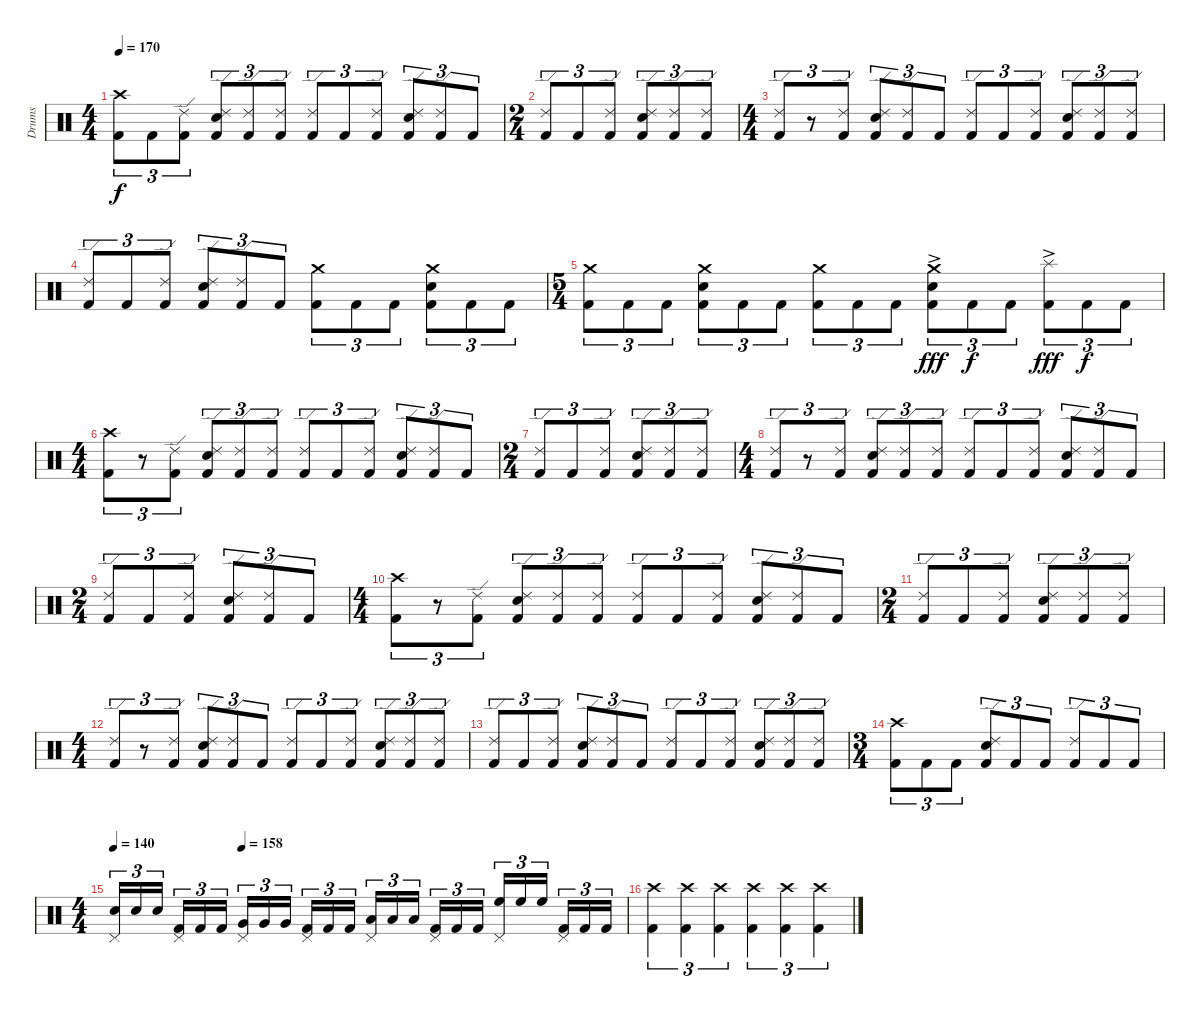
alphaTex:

\track ("Drums" "Drums") {instrument percussion}
\staff {score}
\articulation defaults
\ts (4 4)
\tempo 170
\clef neutral
\ks c
("Crash high (hit)" "Kick (hit) 2").8{tu (3 2) dy f} "Kick (hit) 2".8{tu (3 2)} ("Ride (edge) 2" "Kick (hit) 2").8{tu (3 2)} ("Ride (edge) 2" "Snare (hit) 2" "Kick (hit) 2").8{tu (3 2)} ("Ride (edge) 2" "Kick (hit) 2").8{tu (3 2)} ("Ride (edge) 2" "Kick (hit) 2").8{tu (3 2)} ("Ride (edge) 2" "Kick (hit) 2").8{tu (3 2)} "Kick (hit) 2".8{tu (3 2)} ("Ride (edge) 2" "Kick (hit) 2").8{tu (3 2)} ("Ride (edge) 2" "Snare (hit) 2" "Kick (hit) 2").8{tu (3 2)} ("Ride (edge) 2" "Kick (hit) 2").8{tu (3 2)} "Kick (hit) 2".8{tu (3 2)} |
\ts (2 4)
("Ride (edge) 2" "Kick (hit) 2").8{tu (3 2)} "Kick (hit) 2".8{tu (3 2)} ("Ride (edge) 2" "Kick (hit) 2").8{tu (3 2)} ("Ride (edge) 2" "Snare (hit) 2" "Kick (hit) 2").8{tu (3 2)} ("Ride (edge) 2" "Kick (hit) 2").8{tu (3 2)} ("Ride (edge) 2" "Kick (hit) 2").8{tu (3 2)} |
\ts (4 4)
("Ride (edge) 2" "Kick (hit) 2").8{tu (3 2)} r.8{tu (3 2)} ("Ride (edge) 2" "Kick (hit) 2").8{tu (3 2)} ("Ride (edge) 2" "Snare (hit) 2" "Kick (hit) 2").8{tu (3 2)} ("Ride (edge) 2" "Kick (hit) 2").8{tu (3 2)} "Kick (hit) 2".8{tu (3 2)} ("Ride (edge) 2" "Kick (hit) 2").8{tu (3 2)} "Kick (hit) 2".8{tu (3 2)} ("Ride (edge) 2" "Kick (hit) 2").8{tu (3 2)} ("Ride (edge) 2" "Snare (hit) 2" "Kick (hit) 2").8{tu (3 2)} ("Ride (edge) 2" "Kick (hit) 2").8{tu (3 2)} ("Ride (edge) 2" "Kick (hit) 2").8{tu (3 2)} |
("Ride (edge) 2" "Kick (hit) 2").8{tu (3 2)} "Kick (hit) 2".8{tu (3 2)} ("Ride (edge) 2" "Kick (hit) 2").8{tu (3 2)} ("Ride (edge) 2" "Snare (hit) 2" "Kick (hit) 2").8{tu (3 2)} ("Ride (edge) 2" "Kick (hit) 2").8{tu (3 2)} "Kick (hit) 2".8{tu (3 2)} ("Crash medium (hit)" "Kick (hit) 2").8{tu (3 2)} "Kick (hit) 2".8{tu (3 2)} "Kick (hit) 2".8{tu (3 2)} ("Crash medium (hit)" "Snare (hit) 2" "Kick (hit) 2").8{tu (3 2)} "Kick (hit) 2".8{tu (3 2)} "Kick (hit) 2".8{tu (3 2)} |
\ts (5 4)
("Crash medium (hit)" "Kick (hit) 2").8{tu (3 2)} "Kick (hit) 2".8{tu (3 2)} "Kick (hit) 2".8{tu (3 2)} ("Crash medium (hit)" "Snare (hit) 2" "Kick (hit) 2").8{tu (3 2)} "Kick (hit) 2".8{tu (3 2)} "Kick (hit) 2".8{tu (3 2)} ("Crash medium (hit)" "Kick (hit) 2").8{tu (3 2)} "Kick (hit) 2".8{tu (3 2)} "Kick (hit) 2".8{tu (3 2)} ("Crash medium (hit)"{ac} "Snare (hit) 2" "Kick (hit) 2").8{tu (3 2) dy fff} "Kick (hit) 2".8{tu (3 2) dy f} "Kick (hit) 2".8{tu (3 2)} ("Splash (hit)"{ac} "Kick (hit) 2").8{tu (3 2) dy fff} "Kick (hit) 2".8{tu (3 2) dy f} "Kick (hit) 2".8{tu (3 2)} |
\ts (4 4)
("Crash high (hit)" "Kick (hit) 2").8{tu (3 2)} r.8{tu (3 2)} ("Ride (edge) 2" "Kick (hit) 2").8{tu (3 2)} ("Ride (edge) 2" "Snare (hit) 2" "Kick (hit) 2").8{tu (3 2)} ("Ride (edge) 2" "Kick (hit) 2").8{tu (3 2)} ("Ride (edge) 2" "Kick (hit) 2").8{tu (3 2)} ("Ride (edge) 2" "Kick (hit) 2").8{tu (3 2)} "Kick (hit) 2".8{tu (3 2)} ("Ride (edge) 2" "Kick (hit) 2").8{tu (3 2)} ("Ride (edge) 2" "Snare (hit) 2" "Kick (hit) 2").8{tu (3 2)} ("Ride (edge) 2" "Kick (hit) 2").8{tu (3 2)} "Kick (hit) 2".8{tu (3 2)} |
\ts (2 4)
("Ride (edge) 2" "Kick (hit) 2").8{tu (3 2)} "Kick (hit) 2".8{tu (3 2)} ("Ride (edge) 2" "Kick (hit) 2").8{tu (3 2)} ("Ride (edge) 2" "Snare (hit) 2" "Kick (hit) 2").8{tu (3 2)} ("Ride (edge) 2" "Kick (hit) 2").8{tu (3 2)} ("Ride (edge) 2" "Kick (hit) 2").8{tu (3 2)} |
\ts (4 4)
("Ride (edge) 2" "Kick (hit) 2").8{tu (3 2)} r.8{tu (3 2)} ("Ride (edge) 2" "Kick (hit) 2").8{tu (3 2)} ("Ride (edge) 2" "Snare (hit) 2" "Kick (hit) 2").8{tu (3 2)} ("Ride (edge) 2" "Kick (hit) 2").8{tu (3 2)} ("Ride (edge) 2" "Kick (hit) 2").8{tu (3 2)} ("Ride (edge) 2" "Kick (hit) 2").8{tu (3 2)} "Kick (hit) 2".8{tu (3 2)} ("Ride (edge) 2" "Kick (hit) 2").8{tu (3 2)} ("Ride (edge) 2" "Snare (hit) 2" "Kick (hit) 2").8{tu (3 2)} ("Ride (edge) 2" "Kick (hit) 2").8{tu (3 2)} "Kick (hit) 2".8{tu (3 2)} |
\ts (2 4)
("Ride (edge) 2" "Kick (hit) 2").8{tu (3 2)} "Kick (hit) 2".8{tu (3 2)} ("Ride (edge) 2" "Kick (hit) 2").8{tu (3 2)} ("Ride (edge) 2" "Snare (hit) 2" "Kick (hit) 2").8{tu (3 2)} ("Ride (edge) 2" "Kick (hit) 2").8{tu (3 2)} "Kick (hit) 2".8{tu (3 2)} |
\ts (4 4)
("Crash high (hit)" "Kick (hit) 2").8{tu (3 2)} r.8{tu (3 2)} ("Ride (edge) 2" "Kick (hit) 2").8{tu (3 2)} ("Ride (edge) 2" "Snare (hit) 2" "Kick (hit) 2").8{tu (3 2)} ("Ride (edge) 2" "Kick (hit) 2").8{tu (3 2)} ("Ride (edge) 2" "Kick (hit) 2").8{tu (3 2)} ("Ride (edge) 2" "Kick (hit) 2").8{tu (3 2)} "Kick (hit) 2".8{tu (3 2)} ("Ride (edge) 2" "Kick (hit) 2").8{tu (3 2)} ("Ride (edge) 2" "Snare (hit) 2" "Kick (hit) 2").8{tu (3 2)} ("Ride (edge) 2" "Kick (hit) 2").8{tu (3 2)} "Kick (hit) 2".8{tu (3 2)} |
\ts (2 4)
("Ride (edge) 2" "Kick (hit) 2").8{tu (3 2)} "Kick (hit) 2".8{tu (3 2)} ("Ride (edge) 2" "Kick (hit) 2").8{tu (3 2)} ("Ride (edge) 2" "Snare (hit) 2" "Kick (hit) 2").8{tu (3 2)} ("Ride (edge) 2" "Kick (hit) 2").8{tu (3 2)} ("Ride (edge) 2" "Kick (hit) 2").8{tu (3 2)} |
\ts (4 4)
("Ride (edge) 2" "Kick (hit) 2").8{tu (3 2)} r.8{tu (3 2)} ("Ride (edge) 2" "Kick (hit) 2").8{tu (3 2)} ("Ride (edge) 2" "Snare (hit) 2" "Kick (hit) 2").8{tu (3 2)} ("Ride (edge) 2" "Kick (hit) 2").8{tu (3 2)} "Kick (hit) 2".8{tu (3 2)} ("Ride (edge) 2" "Kick (hit) 2").8{tu (3 2)} "Kick (hit) 2".8{tu (3 2)} ("Ride (edge) 2" "Kick (hit) 2").8{tu (3 2)} ("Ride (edge) 2" "Snare (hit) 2" "Kick (hit) 2").8{tu (3 2)} ("Ride (edge) 2" "Kick (hit) 2").8{tu (3 2)} ("Ride (edge) 2" "Kick (hit) 2").8{tu (3 2)} |
("Ride (edge) 2" "Kick (hit) 2").8{tu (3 2)} "Kick (hit) 2".8{tu (3 2)} ("Ride (edge) 2" "Kick (hit) 2").8{tu (3 2)} ("Ride (edge) 2" "Snare (hit) 2" "Kick (hit) 2").8{tu (3 2)} ("Ride (edge) 2" "Kick (hit) 2").8{tu (3 2)} "Kick (hit) 2".8{tu (3 2)} ("Ride (edge) 2" "Kick (hit) 2").8{tu (3 2)} "Kick (hit) 2".8{tu (3 2)} ("Ride (edge) 2" "Kick (hit) 2").8{tu (3 2)} ("Ride (edge) 2" "Snare (hit) 2" "Kick (hit) 2").8{tu (3 2)} ("Ride (edge) 2" "Kick (hit) 2").8{tu (3 2)} ("Ride (edge) 2" "Kick (hit) 2").8{tu (3 2)} |
\ts (3 4)
("Crash high (hit)" "Kick (hit) 2").8{tu (3 2)} "Kick (hit) 2".8{tu (3 2)} "Kick (hit) 2".8{tu (3 2)} ("Ride (edge) 2" "Snare (hit) 2" "Kick (hit) 2").8{tu (3 2)} "Kick (hit) 2".8{tu (3 2)} "Kick (hit) 2".8{tu (3 2)} ("Ride (edge) 2" "Kick (hit) 2").8{tu (3 2)} "Kick (hit) 2".8{tu (3 2)} "Kick (hit) 2".8{tu (3 2)} |
\ts (4 4)
\tempo 140
\tempo (158 0.25)
("Pedal Hi-Hat (hit)" "Snare (hit) 2").16{tu (3 2)} "Snare (hit) 2".16{tu (3 2)} "Snare (hit) 2".16{tu (3 2)} ("Pedal Hi-Hat (hit)" "Kick (hit) 2").16{tu (3 2)} "Kick (hit) 2".16{tu (3 2)} "Kick (hit) 2".16{tu (3 2)} ("Pedal Hi-Hat (hit)" "Very Low Tom (hit)").16{tu (3 2)} "Very Low Tom (hit)".16{tu (3 2)} "Very Low Tom (hit)".16{tu (3 2)} ("Pedal Hi-Hat (hit)" "Kick (hit) 2").16{tu (3 2)} "Kick (hit) 2".16{tu (3 2)} "Kick (hit) 2".16{tu (3 2)} ("Pedal Hi-Hat (hit)" "Low Tom (hit)").16{tu (3 2)} "Low Tom (hit)".16{tu (3 2)} "Low Tom (hit)".16{tu (3 2)} ("Pedal Hi-Hat (hit)" "Kick (hit) 2").16{tu (3 2)} "Kick (hit) 2".16{tu (3 2)} "Kick (hit) 2".16{tu (3 2)} ("Pedal Hi-Hat (hit)" "High Floor Tom (hit)").16{tu (3 2)} "High Floor Tom (hit)".16{tu (3 2)} "High Floor Tom (hit)".16{tu (3 2)} ("Pedal Hi-Hat (hit)" "Kick (hit) 2").16{tu (3 2)} "Kick (hit) 2".16{tu (3 2)} "Kick (hit) 2".16{tu (3 2)} |
("Crash high (hit)" "Kick (hit) 2").4{tu (3 2)} ("Crash high (hit)" "Kick (hit) 2").4{tu (3 2)} ("Crash high (hit)" "Kick (hit) 2").4{tu (3 2)} ("Crash high (hit)" "Kick (hit) 2").4{tu (3 2)} ("Crash high (hit)" "Kick (hit) 2").4{tu (3 2)} ("Crash high (hit)" "Kick (hit) 2").4{tu (3 2)}
